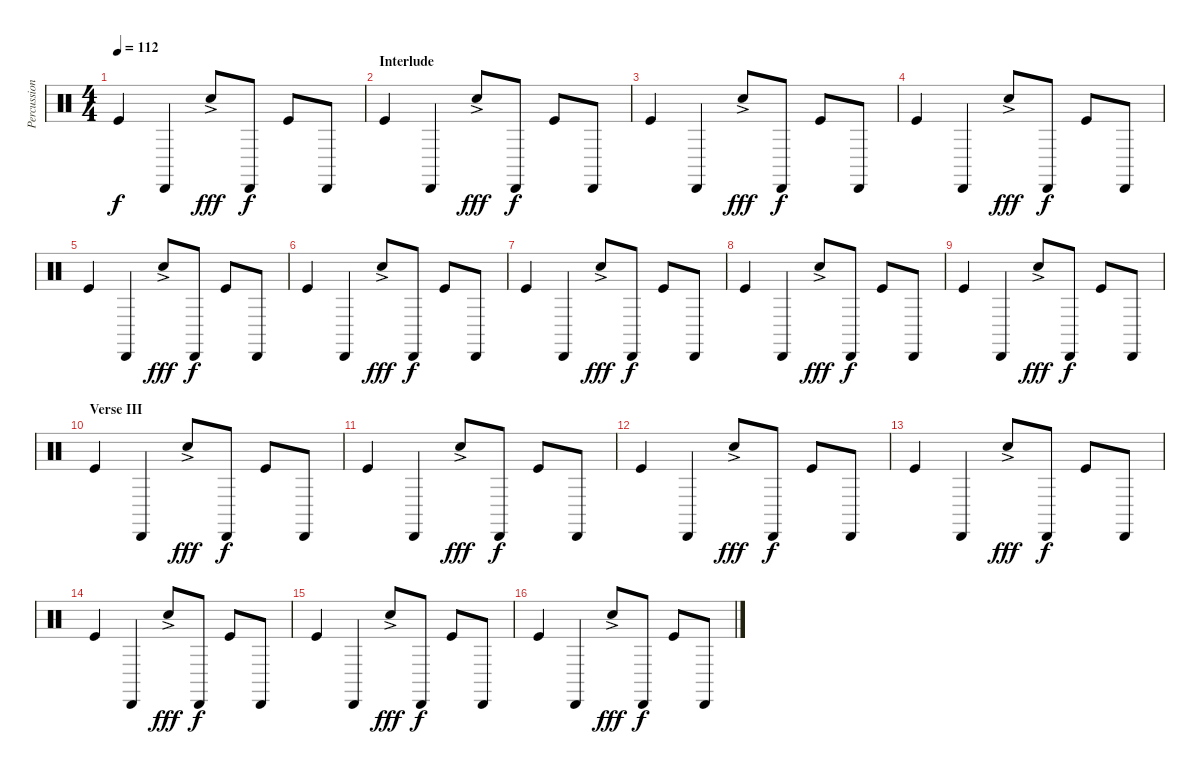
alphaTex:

\track ("Percussion" "Percussion") {instrument percussion}
\staff {score}
\articulation defaults
\ts (4 4)
\tempo 112
\clef neutral
\ks c "Kick (hit)".4{dy f} "Cabasa (hit)".4 "Snare (hit) 2"{ac}.8{dy fff} "Cabasa (hit)".8{dy f} "Kick (hit)".8 "Cabasa (hit)".8
|
\section ("" "Interlude")
"Kick (hit)".4 "Cabasa (hit)".4 "Snare (hit) 2"{ac}.8{dy fff} "Cabasa (hit)".8{dy f} "Kick (hit)".8 "Cabasa (hit)".8 |
"Kick (hit)".4 "Cabasa (hit)".4 "Snare (hit) 2"{ac}.8{dy fff} "Cabasa (hit)".8{dy f} "Kick (hit)".8 "Cabasa (hit)".8 |
"Kick (hit)".4 "Cabasa (hit)".4 "Snare (hit) 2"{ac}.8{dy fff} "Cabasa (hit)".8{dy f} "Kick (hit)".8 "Cabasa (hit)".8 |
"Kick (hit)".4 "Cabasa (hit)".4 "Snare (hit) 2"{ac}.8{dy fff} "Cabasa (hit)".8{dy f} "Kick (hit)".8 "Cabasa (hit)".8 |
"Kick (hit)".4 "Cabasa (hit)".4 "Snare (hit) 2"{ac}.8{dy fff} "Cabasa (hit)".8{dy f} "Kick (hit)".8 "Cabasa (hit)".8 |
"Kick (hit)".4 "Cabasa (hit)".4 "Snare (hit) 2"{ac}.8{dy fff} "Cabasa (hit)".8{dy f} "Kick (hit)".8 "Cabasa (hit)".8 |
"Kick (hit)".4 "Cabasa (hit)".4 "Snare (hit) 2"{ac}.8{dy fff} "Cabasa (hit)".8{dy f} "Kick (hit)".8 "Cabasa (hit)".8 |
"Kick (hit)".4 "Cabasa (hit)".4 "Snare (hit) 2"{ac}.8{dy fff} "Cabasa (hit)".8{dy f} "Kick (hit)".8 "Cabasa (hit)".8 |
\section ("" "Verse III")
"Kick (hit)".4 "Cabasa (hit)".4 "Snare (hit) 2"{ac}.8{dy fff} "Cabasa (hit)".8{dy f} "Kick (hit)".8 "Cabasa (hit)".8 |
"Kick (hit)".4 "Cabasa (hit)".4 "Snare (hit) 2"{ac}.8{dy fff} "Cabasa (hit)".8{dy f} "Kick (hit)".8 "Cabasa (hit)".8 |
"Kick (hit)".4 "Cabasa (hit)".4 "Snare (hit) 2"{ac}.8{dy fff} "Cabasa (hit)".8{dy f} "Kick (hit)".8 "Cabasa (hit)".8 |
"Kick (hit)".4 "Cabasa (hit)".4 "Snare (hit) 2"{ac}.8{dy fff} "Cabasa (hit)".8{dy f} "Kick (hit)".8 "Cabasa (hit)".8 |
"Kick (hit)".4 "Cabasa (hit)".4 "Snare (hit) 2"{ac}.8{dy fff} "Cabasa (hit)".8{dy f} "Kick (hit)".8 "Cabasa (hit)".8 |
"Kick (hit)".4 "Cabasa (hit)".4 "Snare (hit) 2"{ac}.8{dy fff} "Cabasa (hit)".8{dy f} "Kick (hit)".8 "Cabasa (hit)".8 |
"Kick (hit)".4 "Cabasa (hit)".4 "Snare (hit) 2"{ac}.8{dy fff} "Cabasa (hit)".8{dy f} "Kick (hit)".8 "Cabasa (hit)".8
